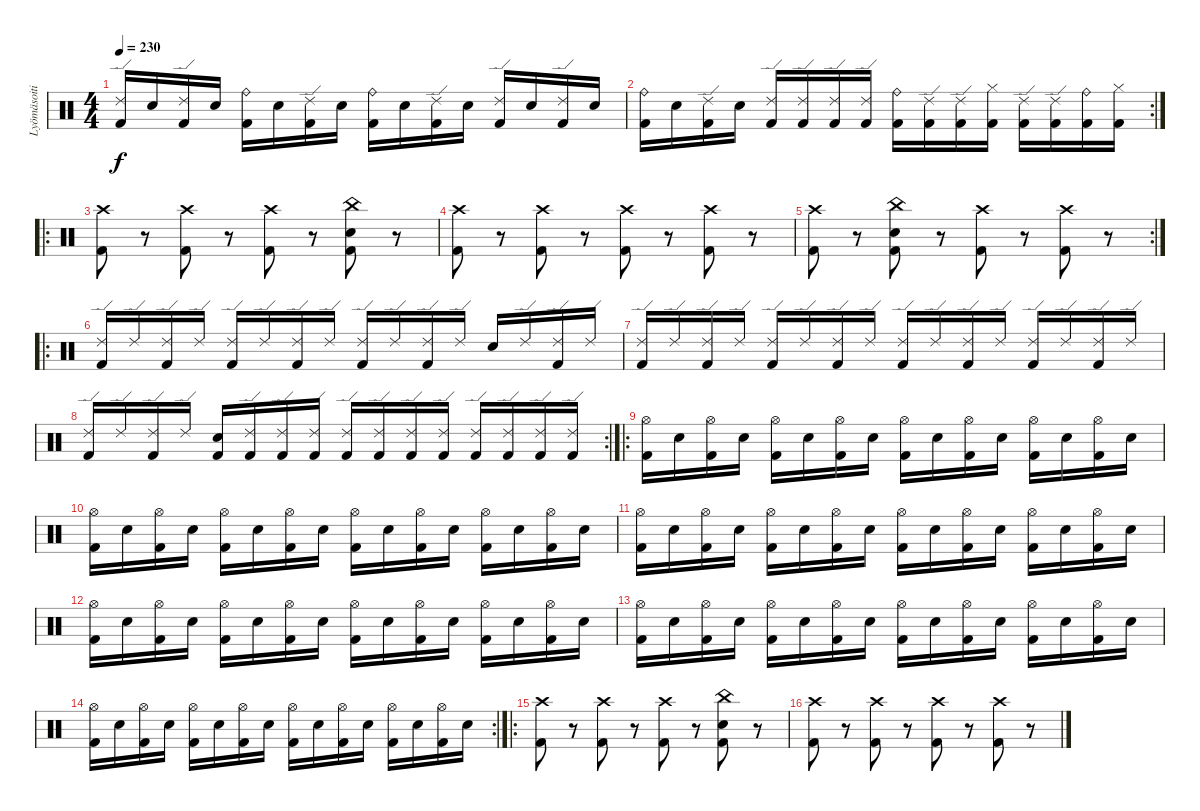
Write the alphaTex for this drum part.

\track ("Lyömäsoitin" "Lyömäsoiti") {instrument percussion}
\staff {score}
\articulation defaults
\ts (4 4)
\tempo 230
\clef neutral
\ks c
("Ride (edge) 2" "Kick (hit) 2").16{dy f} "Snare (hit) 2".16 ("Ride (edge) 2" "Kick (hit) 2").16 "Snare (hit) 2".16 ("Ride (bell)" "Kick (hit) 2").16 "Snare (hit) 2".16 ("Ride (edge) 2" "Kick (hit) 2").16 "Snare (hit) 2".16 ("Ride (bell)" "Kick (hit) 2").16 "Snare (hit) 2".16 ("Ride (edge) 2" "Kick (hit) 2").16 "Snare (hit) 2".16 ("Ride (edge) 2" "Kick (hit) 2").16 "Snare (hit) 2".16 ("Ride (edge) 2" "Kick (hit) 2").16 "Snare (hit) 2".16 |
\rc 2
("Ride (bell)" "Kick (hit) 2").16 "Snare (hit) 2".16 ("Ride (edge) 2" "Kick (hit) 2").16 "Snare (hit) 2".16 ("Ride (edge) 2" "Kick (hit) 2").16 ("Ride (edge) 2" "Kick (hit) 2").16 ("Ride (edge) 2" "Kick (hit) 2").16 ("Ride (edge) 2" "Kick (hit) 2").16 ("Ride (bell)" "Kick (hit) 2").16 ("Ride (edge) 2" "Kick (hit) 2").16 ("Ride (edge) 2" "Kick (hit) 2").16 ("Hi-Hat (closed)" "Kick (hit) 2").16 ("Ride (edge) 2" "Kick (hit) 2").16 ("Ride (edge) 2" "Kick (hit) 2").16 ("Ride (bell)" "Kick (hit) 2").16 ("Hi-Hat (closed)" "Kick (hit) 2").16 |
\ro
("Crash high (hit)" "Kick (hit) 2").8 r.8 ("Crash high (hit)" "Kick (hit) 2").8 r.8 ("Crash high (hit)" "Kick (hit) 2").8 r.8 ("China (hit)" "Snare (hit) 2" "Kick (hit) 2").8 r.8 |
("Crash high (hit)" "Kick (hit) 2").8 r.8 ("Crash high (hit)" "Kick (hit) 2").8 r.8 ("Crash high (hit)" "Kick (hit) 2").8 r.8 ("Crash high (hit)" "Kick (hit) 2").8 r.8 |
\rc 2
("Crash high (hit)" "Kick (hit) 2").8 r.8 ("China (hit)" "Snare (hit) 2" "Kick (hit) 2").8 r.8 ("Crash high (hit)" "Kick (hit) 2").8 r.8 ("Crash high (hit)" "Kick (hit) 2").8 r.8 |
\ro
("Ride (edge) 2" "Kick (hit) 2").16 "Ride (edge) 2".16 ("Ride (edge) 2" "Kick (hit) 2").16 "Ride (edge) 2".16 ("Ride (edge) 2" "Kick (hit) 2").16 "Ride (edge) 2".16 ("Ride (edge) 2" "Kick (hit) 2").16 "Ride (edge) 2".16 ("Ride (edge) 2" "Kick (hit) 2").16 "Ride (edge) 2".16 ("Ride (edge) 2" "Kick (hit) 2").16 "Ride (edge) 2".16 "Snare (hit) 2".16 "Ride (edge) 2".16 ("Ride (edge) 2" "Kick (hit) 2").16 "Ride (edge) 2".16 |
("Ride (edge) 2" "Kick (hit) 2").16 "Ride (edge) 2".16 ("Ride (edge) 2" "Kick (hit) 2").16 "Ride (edge) 2".16 ("Ride (edge) 2" "Kick (hit) 2").16 "Ride (edge) 2".16 ("Ride (edge) 2" "Kick (hit) 2").16 "Ride (edge) 2".16 ("Ride (edge) 2" "Kick (hit) 2").16 "Ride (edge) 2".16 ("Ride (edge) 2" "Kick (hit) 2").16 "Ride (edge) 2".16 ("Ride (edge) 2" "Kick (hit) 2").16 "Ride (edge) 2".16 ("Ride (edge) 2" "Kick (hit) 2").16 "Ride (edge) 2".16 |
\rc 2
("Ride (edge) 2" "Kick (hit) 2").16 "Ride (edge) 2".16 ("Ride (edge) 2" "Kick (hit) 2").16 "Ride (edge) 2".16 ("Snare (hit) 2" "Kick (hit) 2").16 ("Ride (edge) 2" "Kick (hit) 2").16 ("Ride (edge) 2" "Kick (hit) 2").16 ("Ride (edge) 2" "Kick (hit) 2").16 ("Ride (edge) 2" "Kick (hit) 2").16 ("Ride (edge) 2" "Kick (hit) 2").16 ("Ride (edge) 2" "Kick (hit) 2").16 ("Ride (edge) 2" "Kick (hit) 2").16 ("Ride (edge) 2" "Kick (hit) 2").16 ("Ride (edge) 2" "Kick (hit) 2").16 ("Ride (edge) 2" "Kick (hit) 2").16 ("Ride (edge) 2" "Kick (hit) 2").16 |
\ro
("Hi-Hat (open)" "Kick (hit) 2").16 "Snare (hit) 2".16 ("Hi-Hat (open)" "Kick (hit) 2").16 "Snare (hit) 2".16 ("Hi-Hat (open)" "Kick (hit) 2").16 "Snare (hit) 2".16 ("Hi-Hat (open)" "Kick (hit) 2").16 "Snare (hit) 2".16 ("Hi-Hat (open)" "Kick (hit) 2").16 "Snare (hit) 2".16 ("Hi-Hat (open)" "Kick (hit) 2").16 "Snare (hit) 2".16 ("Hi-Hat (open)" "Kick (hit) 2").16 "Snare (hit) 2".16 ("Hi-Hat (open)" "Kick (hit) 2").16 "Snare (hit) 2".16 |
("Hi-Hat (open)" "Kick (hit) 2").16 "Snare (hit) 2".16 ("Hi-Hat (open)" "Kick (hit) 2").16 "Snare (hit) 2".16 ("Hi-Hat (open)" "Kick (hit) 2").16 "Snare (hit) 2".16 ("Hi-Hat (open)" "Kick (hit) 2").16 "Snare (hit) 2".16 ("Hi-Hat (open)" "Kick (hit) 2").16 "Snare (hit) 2".16 ("Hi-Hat (open)" "Kick (hit) 2").16 "Snare (hit) 2".16 ("Hi-Hat (open)" "Kick (hit) 2").16 "Snare (hit) 2".16 ("Hi-Hat (open)" "Kick (hit) 2").16 "Snare (hit) 2".16 |
("Hi-Hat (open)" "Kick (hit) 2").16 "Snare (hit) 2".16 ("Hi-Hat (open)" "Kick (hit) 2").16 "Snare (hit) 2".16 ("Hi-Hat (open)" "Kick (hit) 2").16 "Snare (hit) 2".16 ("Hi-Hat (open)" "Kick (hit) 2").16 "Snare (hit) 2".16 ("Hi-Hat (open)" "Kick (hit) 2").16 "Snare (hit) 2".16 ("Hi-Hat (open)" "Kick (hit) 2").16 "Snare (hit) 2".16 ("Hi-Hat (open)" "Kick (hit) 2").16 "Snare (hit) 2".16 ("Hi-Hat (open)" "Kick (hit) 2").16 "Snare (hit) 2".16 |
("Hi-Hat (open)" "Kick (hit) 2").16 "Snare (hit) 2".16 ("Hi-Hat (open)" "Kick (hit) 2").16 "Snare (hit) 2".16 ("Hi-Hat (open)" "Kick (hit) 2").16 "Snare (hit) 2".16 ("Hi-Hat (open)" "Kick (hit) 2").16 "Snare (hit) 2".16 ("Hi-Hat (open)" "Kick (hit) 2").16 "Snare (hit) 2".16 ("Hi-Hat (open)" "Kick (hit) 2").16 "Snare (hit) 2".16 ("Hi-Hat (open)" "Kick (hit) 2").16 "Snare (hit) 2".16 ("Hi-Hat (open)" "Kick (hit) 2").16 "Snare (hit) 2".16 |
("Hi-Hat (open)" "Kick (hit) 2").16 "Snare (hit) 2".16 ("Hi-Hat (open)" "Kick (hit) 2").16 "Snare (hit) 2".16 ("Hi-Hat (open)" "Kick (hit) 2").16 "Snare (hit) 2".16 ("Hi-Hat (open)" "Kick (hit) 2").16 "Snare (hit) 2".16 ("Hi-Hat (open)" "Kick (hit) 2").16 "Snare (hit) 2".16 ("Hi-Hat (open)" "Kick (hit) 2").16 "Snare (hit) 2".16 ("Hi-Hat (open)" "Kick (hit) 2").16 "Snare (hit) 2".16 ("Hi-Hat (open)" "Kick (hit) 2").16 "Snare (hit) 2".16 |
\rc 2
("Hi-Hat (open)" "Kick (hit) 2").16 "Snare (hit) 2".16 ("Hi-Hat (open)" "Kick (hit) 2").16 "Snare (hit) 2".16 ("Hi-Hat (open)" "Kick (hit) 2").16 "Snare (hit) 2".16 ("Hi-Hat (open)" "Kick (hit) 2").16 "Snare (hit) 2".16 ("Hi-Hat (open)" "Kick (hit) 2").16 "Snare (hit) 2".16 ("Hi-Hat (open)" "Kick (hit) 2").16 "Snare (hit) 2".16 ("Hi-Hat (open)" "Kick (hit) 2").16 "Snare (hit) 2".16 ("Hi-Hat (open)" "Kick (hit) 2").16 "Snare (hit) 2".16 |
\ro
("Crash high (hit)" "Kick (hit) 2").8 r.8 ("Crash high (hit)" "Kick (hit) 2").8 r.8 ("Crash high (hit)" "Kick (hit) 2").8 r.8 ("China (hit)" "Snare (hit) 2" "Kick (hit) 2").8 r.8 |
("Crash high (hit)" "Kick (hit) 2").8 r.8 ("Crash high (hit)" "Kick (hit) 2").8 r.8 ("Crash high (hit)" "Kick (hit) 2").8 r.8 ("Crash high (hit)" "Kick (hit) 2").8 r.8
